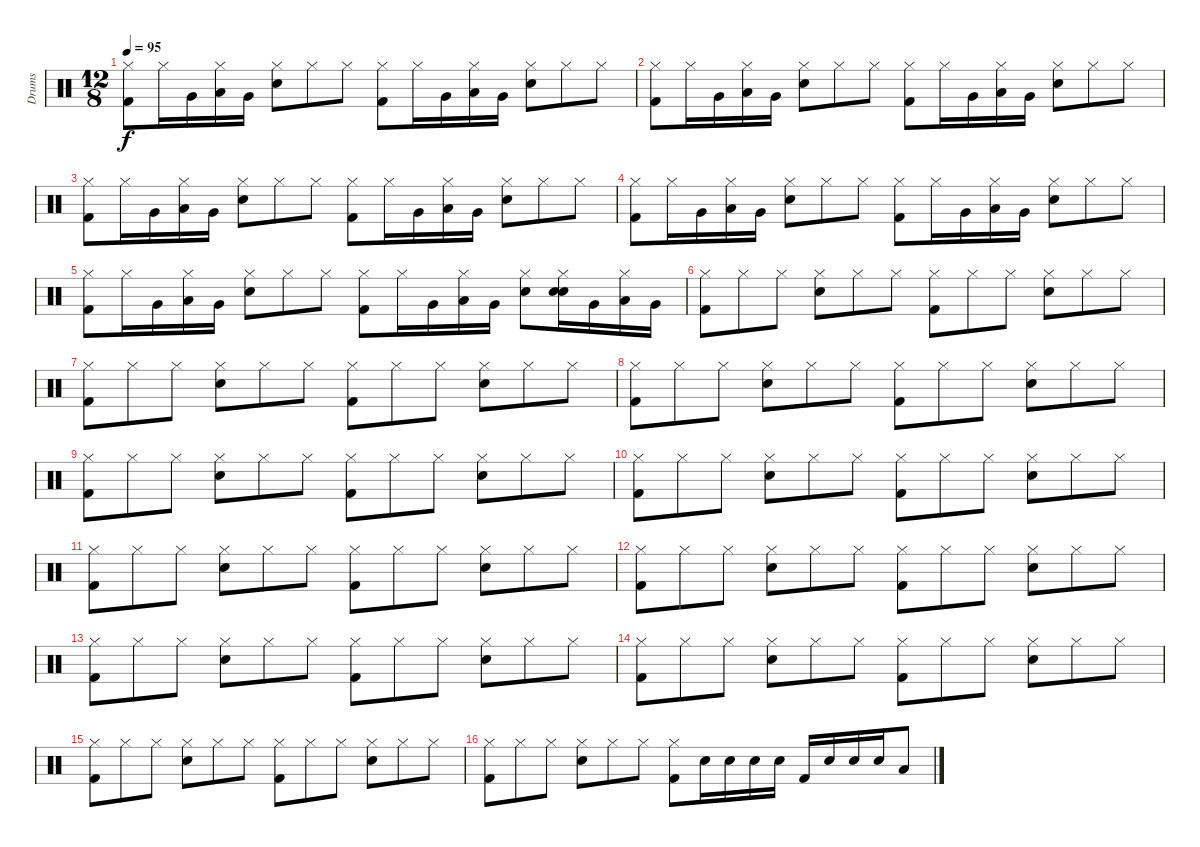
\track ("Drums" "Drums") {instrument percussion}
\staff {score}
\articulation defaults
\ts (12 8)
\tempo 95
\clef neutral
\ks c
("Kick (hit) 2" "Hi-Hat (closed)").8{dy f} "Hi-Hat (closed)".16 "Very Low Tom (hit)".16 ("Hi-Hat (closed)" "Low Tom (hit)").16 "Very Low Tom (hit)".16 ("Snare (hit) 2" "Hi-Hat (closed)").8 "Hi-Hat (closed)".8 "Hi-Hat (closed)".8 ("Kick (hit) 2" "Hi-Hat (closed)").8 "Hi-Hat (closed)".16 "Very Low Tom (hit)".16 ("Hi-Hat (closed)" "Low Tom (hit)").16 "Very Low Tom (hit)".16 ("Snare (hit) 2" "Hi-Hat (closed)").8 "Hi-Hat (closed)".8 "Hi-Hat (closed)".8 |
("Kick (hit) 2" "Hi-Hat (closed)").8 "Hi-Hat (closed)".16 "Very Low Tom (hit)".16 ("Hi-Hat (closed)" "Low Tom (hit)").16 "Very Low Tom (hit)".16 ("Snare (hit) 2" "Hi-Hat (closed)").8 "Hi-Hat (closed)".8 "Hi-Hat (closed)".8 ("Kick (hit) 2" "Hi-Hat (closed)").8 "Hi-Hat (closed)".16 "Very Low Tom (hit)".16 ("Hi-Hat (closed)" "Low Tom (hit)").16 "Very Low Tom (hit)".16 ("Snare (hit) 2" "Hi-Hat (closed)").8 "Hi-Hat (closed)".8 "Hi-Hat (closed)".8 |
("Kick (hit) 2" "Hi-Hat (closed)").8 "Hi-Hat (closed)".16 "Very Low Tom (hit)".16 ("Hi-Hat (closed)" "Low Tom (hit)").16 "Very Low Tom (hit)".16 ("Snare (hit) 2" "Hi-Hat (closed)").8 "Hi-Hat (closed)".8 "Hi-Hat (closed)".8 ("Kick (hit) 2" "Hi-Hat (closed)").8 "Hi-Hat (closed)".16 "Very Low Tom (hit)".16 ("Hi-Hat (closed)" "Low Tom (hit)").16 "Very Low Tom (hit)".16 ("Snare (hit) 2" "Hi-Hat (closed)").8 "Hi-Hat (closed)".8 "Hi-Hat (closed)".8 |
("Kick (hit) 2" "Hi-Hat (closed)").8 "Hi-Hat (closed)".16 "Very Low Tom (hit)".16 ("Hi-Hat (closed)" "Low Tom (hit)").16 "Very Low Tom (hit)".16 ("Snare (hit) 2" "Hi-Hat (closed)").8 "Hi-Hat (closed)".8 "Hi-Hat (closed)".8 ("Kick (hit) 2" "Hi-Hat (closed)").8 "Hi-Hat (closed)".16 "Very Low Tom (hit)".16 ("Hi-Hat (closed)" "Low Tom (hit)").16 "Very Low Tom (hit)".16 ("Snare (hit) 2" "Hi-Hat (closed)").8 "Hi-Hat (closed)".8 "Hi-Hat (closed)".8 |
("Kick (hit) 2" "Hi-Hat (closed)").8 "Hi-Hat (closed)".16 "Very Low Tom (hit)".16 ("Hi-Hat (closed)" "Low Tom (hit)").16 "Very Low Tom (hit)".16 ("Snare (hit) 2" "Hi-Hat (closed)").8 "Hi-Hat (closed)".8 "Hi-Hat (closed)".8 ("Kick (hit) 2" "Hi-Hat (closed)").8 "Hi-Hat (closed)".16 "Very Low Tom (hit)".16 ("Hi-Hat (closed)" "Low Tom (hit)").16 "Very Low Tom (hit)".16 ("Snare (hit) 2" "Hi-Hat (closed)").8 ("Snare (hit) 2" "Snare (hit) 2" "Hi-Hat (closed)").16 "Very Low Tom (hit)".16 ("Hi-Hat (closed)" "Low Tom (hit)").16 "Very Low Tom (hit)".16 |
("Kick (hit) 2" "Hi-Hat (closed)").8 "Hi-Hat (closed)".8 "Hi-Hat (closed)".8 ("Snare (hit) 2" "Hi-Hat (closed)").8 "Hi-Hat (closed)".8 "Hi-Hat (closed)".8 ("Kick (hit) 2" "Hi-Hat (closed)").8 "Hi-Hat (closed)".8 "Hi-Hat (closed)".8 ("Snare (hit) 2" "Hi-Hat (closed)").8 "Hi-Hat (closed)".8 "Hi-Hat (closed)".8 |
("Kick (hit) 2" "Hi-Hat (closed)").8 "Hi-Hat (closed)".8 "Hi-Hat (closed)".8 ("Snare (hit) 2" "Hi-Hat (closed)").8 "Hi-Hat (closed)".8 "Hi-Hat (closed)".8 ("Kick (hit) 2" "Hi-Hat (closed)").8 "Hi-Hat (closed)".8 "Hi-Hat (closed)".8 ("Snare (hit) 2" "Hi-Hat (closed)").8 "Hi-Hat (closed)".8 "Hi-Hat (closed)".8 |
("Kick (hit) 2" "Hi-Hat (closed)").8 "Hi-Hat (closed)".8 "Hi-Hat (closed)".8 ("Snare (hit) 2" "Hi-Hat (closed)").8 "Hi-Hat (closed)".8 "Hi-Hat (closed)".8 ("Kick (hit) 2" "Hi-Hat (closed)").8 "Hi-Hat (closed)".8 "Hi-Hat (closed)".8 ("Snare (hit) 2" "Hi-Hat (closed)").8 "Hi-Hat (closed)".8 "Hi-Hat (closed)".8 |
("Kick (hit) 2" "Hi-Hat (closed)").8 "Hi-Hat (closed)".8 "Hi-Hat (closed)".8 ("Snare (hit) 2" "Hi-Hat (closed)").8 "Hi-Hat (closed)".8 "Hi-Hat (closed)".8 ("Kick (hit) 2" "Hi-Hat (closed)").8 "Hi-Hat (closed)".8 "Hi-Hat (closed)".8 ("Snare (hit) 2" "Hi-Hat (closed)").8 "Hi-Hat (closed)".8 "Hi-Hat (closed)".8 |
("Kick (hit) 2" "Hi-Hat (closed)").8 "Hi-Hat (closed)".8 "Hi-Hat (closed)".8 ("Snare (hit) 2" "Hi-Hat (closed)").8 "Hi-Hat (closed)".8 "Hi-Hat (closed)".8 ("Kick (hit) 2" "Hi-Hat (closed)").8 "Hi-Hat (closed)".8 "Hi-Hat (closed)".8 ("Snare (hit) 2" "Hi-Hat (closed)").8 "Hi-Hat (closed)".8 "Hi-Hat (closed)".8 |
("Kick (hit) 2" "Hi-Hat (closed)").8 "Hi-Hat (closed)".8 "Hi-Hat (closed)".8 ("Snare (hit) 2" "Hi-Hat (closed)").8 "Hi-Hat (closed)".8 "Hi-Hat (closed)".8 ("Kick (hit) 2" "Hi-Hat (closed)").8 "Hi-Hat (closed)".8 "Hi-Hat (closed)".8 ("Snare (hit) 2" "Hi-Hat (closed)").8 "Hi-Hat (closed)".8 "Hi-Hat (closed)".8 |
("Kick (hit) 2" "Hi-Hat (closed)").8 "Hi-Hat (closed)".8 "Hi-Hat (closed)".8 ("Snare (hit) 2" "Hi-Hat (closed)").8 "Hi-Hat (closed)".8 "Hi-Hat (closed)".8 ("Kick (hit) 2" "Hi-Hat (closed)").8 "Hi-Hat (closed)".8 "Hi-Hat (closed)".8 ("Snare (hit) 2" "Hi-Hat (closed)").8 "Hi-Hat (closed)".8 "Hi-Hat (closed)".8 |
("Kick (hit) 2" "Hi-Hat (closed)").8 "Hi-Hat (closed)".8 "Hi-Hat (closed)".8 ("Snare (hit) 2" "Hi-Hat (closed)").8 "Hi-Hat (closed)".8 "Hi-Hat (closed)".8 ("Kick (hit) 2" "Hi-Hat (closed)").8 "Hi-Hat (closed)".8 "Hi-Hat (closed)".8 ("Snare (hit) 2" "Hi-Hat (closed)").8 "Hi-Hat (closed)".8 "Hi-Hat (closed)".8 |
("Kick (hit) 2" "Hi-Hat (closed)").8 "Hi-Hat (closed)".8 "Hi-Hat (closed)".8 ("Snare (hit) 2" "Hi-Hat (closed)").8 "Hi-Hat (closed)".8 "Hi-Hat (closed)".8 ("Kick (hit) 2" "Hi-Hat (closed)").8 "Hi-Hat (closed)".8 "Hi-Hat (closed)".8 ("Snare (hit) 2" "Hi-Hat (closed)").8 "Hi-Hat (closed)".8 "Hi-Hat (closed)".8 |
("Kick (hit) 2" "Hi-Hat (closed)").8 "Hi-Hat (closed)".8 "Hi-Hat (closed)".8 ("Snare (hit) 2" "Hi-Hat (closed)").8 "Hi-Hat (closed)".8 "Hi-Hat (closed)".8 ("Kick (hit) 2" "Hi-Hat (closed)").8 "Hi-Hat (closed)".8 "Hi-Hat (closed)".8 ("Snare (hit) 2" "Hi-Hat (closed)").8 "Hi-Hat (closed)".8 "Hi-Hat (closed)".8 |
("Kick (hit) 2" "Hi-Hat (closed)").8 "Hi-Hat (closed)".8 "Hi-Hat (closed)".8 ("Snare (hit) 2" "Hi-Hat (closed)").8 "Hi-Hat (closed)".8 "Hi-Hat (closed)".8 ("Kick (hit) 2" "Hi-Hat (closed)").8 "Snare (hit) 2".16 "Snare (hit) 2".16 "Snare (hit) 2".16 "Snare (hit) 2".16 "Kick (hit) 2".16 "Snare (hit) 2".16 "Snare (hit) 2".16 "Snare (hit) 2".16 "Low Tom (hit)".8
